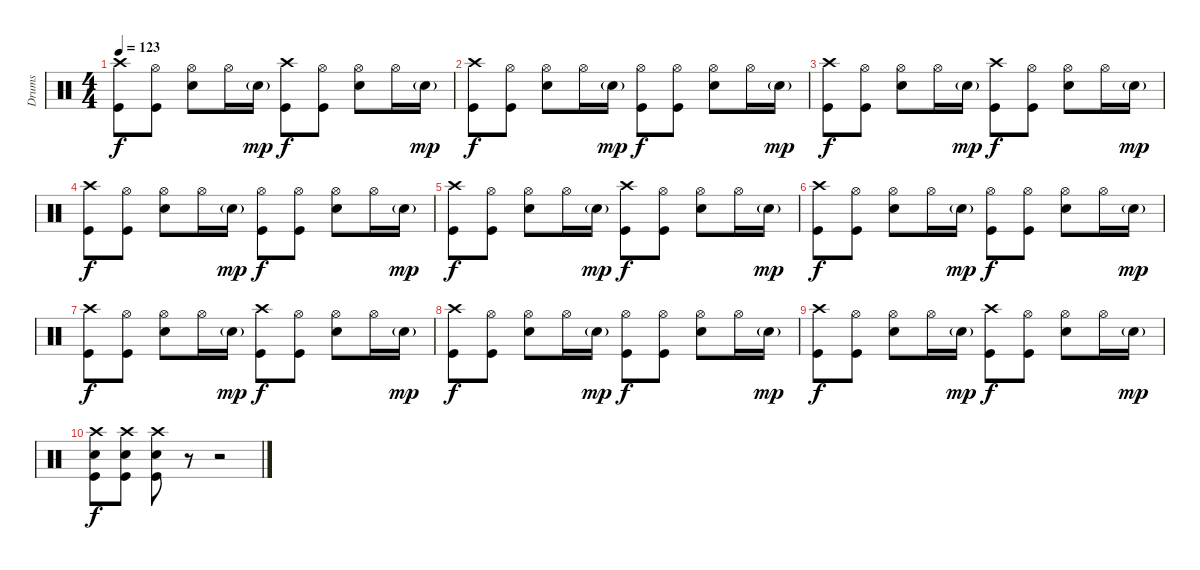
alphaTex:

\track ("Drums" "Drums") {instrument percussion}
\staff {score}
\articulation defaults
\ts (4 4)
\tempo 123
\clef neutral
\ks c
("Crash high (hit)" "Kick (hit)").8{dy f} ("Hi-Hat (open)" "Kick (hit)").8 ("Hi-Hat (open)" "Snare (hit) 2").8 "Hi-Hat (open)".16 "Snare (hit) 2"{g}.16{dy mp} ("Crash high (hit)" "Kick (hit)").8{dy f} ("Hi-Hat (open)" "Kick (hit)").8 ("Hi-Hat (open)" "Snare (hit) 2").8 "Hi-Hat (open)".16 "Snare (hit) 2"{g}.16{dy mp} |
("Crash high (hit)" "Kick (hit)").8{dy f} ("Hi-Hat (open)" "Kick (hit)").8 ("Hi-Hat (open)" "Snare (hit) 2").8 "Hi-Hat (open)".16 "Snare (hit) 2"{g}.16{dy mp} ("Hi-Hat (open)" "Kick (hit)").8{dy f} ("Hi-Hat (open)" "Kick (hit)").8 ("Hi-Hat (open)" "Snare (hit) 2").8 "Hi-Hat (open)".16 "Snare (hit) 2"{g}.16{dy mp} |
("Crash high (hit)" "Kick (hit)").8{dy f} ("Hi-Hat (open)" "Kick (hit)").8 ("Hi-Hat (open)" "Snare (hit) 2").8 "Hi-Hat (open)".16 "Snare (hit) 2"{g}.16{dy mp} ("Crash high (hit)" "Kick (hit)").8{dy f} ("Hi-Hat (open)" "Kick (hit)").8 ("Hi-Hat (open)" "Snare (hit) 2").8 "Hi-Hat (open)".16 "Snare (hit) 2"{g}.16{dy mp} |
("Crash high (hit)" "Kick (hit)").8{dy f} ("Hi-Hat (open)" "Kick (hit)").8 ("Hi-Hat (open)" "Snare (hit) 2").8 "Hi-Hat (open)".16 "Snare (hit) 2"{g}.16{dy mp} ("Hi-Hat (open)" "Kick (hit)").8{dy f} ("Hi-Hat (open)" "Kick (hit)").8 ("Hi-Hat (open)" "Snare (hit) 2").8 "Hi-Hat (open)".16 "Snare (hit) 2"{g}.16{dy mp} |
("Crash high (hit)" "Kick (hit)").8{dy f} ("Hi-Hat (open)" "Kick (hit)").8 ("Hi-Hat (open)" "Snare (hit) 2").8 "Hi-Hat (open)".16 "Snare (hit) 2"{g}.16{dy mp} ("Crash high (hit)" "Kick (hit)").8{dy f} ("Hi-Hat (open)" "Kick (hit)").8 ("Hi-Hat (open)" "Snare (hit) 2").8 "Hi-Hat (open)".16 "Snare (hit) 2"{g}.16{dy mp} |
("Crash high (hit)" "Kick (hit)").8{dy f} ("Hi-Hat (open)" "Kick (hit)").8 ("Hi-Hat (open)" "Snare (hit) 2").8 "Hi-Hat (open)".16 "Snare (hit) 2"{g}.16{dy mp} ("Hi-Hat (open)" "Kick (hit)").8{dy f} ("Hi-Hat (open)" "Kick (hit)").8 ("Hi-Hat (open)" "Snare (hit) 2").8 "Hi-Hat (open)".16 "Snare (hit) 2"{g}.16{dy mp} |
("Crash high (hit)" "Kick (hit)").8{dy f} ("Hi-Hat (open)" "Kick (hit)").8 ("Hi-Hat (open)" "Snare (hit) 2").8 "Hi-Hat (open)".16 "Snare (hit) 2"{g}.16{dy mp} ("Crash high (hit)" "Kick (hit)").8{dy f} ("Hi-Hat (open)" "Kick (hit)").8 ("Hi-Hat (open)" "Snare (hit) 2").8 "Hi-Hat (open)".16 "Snare (hit) 2"{g}.16{dy mp} |
("Crash high (hit)" "Kick (hit)").8{dy f} ("Hi-Hat (open)" "Kick (hit)").8 ("Hi-Hat (open)" "Snare (hit) 2").8 "Hi-Hat (open)".16 "Snare (hit) 2"{g}.16{dy mp} ("Hi-Hat (open)" "Kick (hit)").8{dy f} ("Hi-Hat (open)" "Kick (hit)").8 ("Hi-Hat (open)" "Snare (hit) 2").8 "Hi-Hat (open)".16 "Snare (hit) 2"{g}.16{dy mp} |
("Crash high (hit)" "Kick (hit)").8{dy f} ("Hi-Hat (open)" "Kick (hit)").8 ("Hi-Hat (open)" "Snare (hit) 2").8 "Hi-Hat (open)".16 "Snare (hit) 2"{g}.16{dy mp} ("Crash high (hit)" "Kick (hit)").8{dy f} ("Hi-Hat (open)" "Kick (hit)").8 ("Hi-Hat (open)" "Snare (hit) 2").8 "Hi-Hat (open)".16 "Snare (hit) 2"{g}.16{dy mp} |
("Crash high (hit)" "Snare (hit) 2" "Kick (hit)").8{dy f} ("Crash high (hit)" "Snare (hit) 2" "Kick (hit)").8 ("Crash high (hit)" "Snare (hit) 2" "Kick (hit)").8 r.8 r.2
